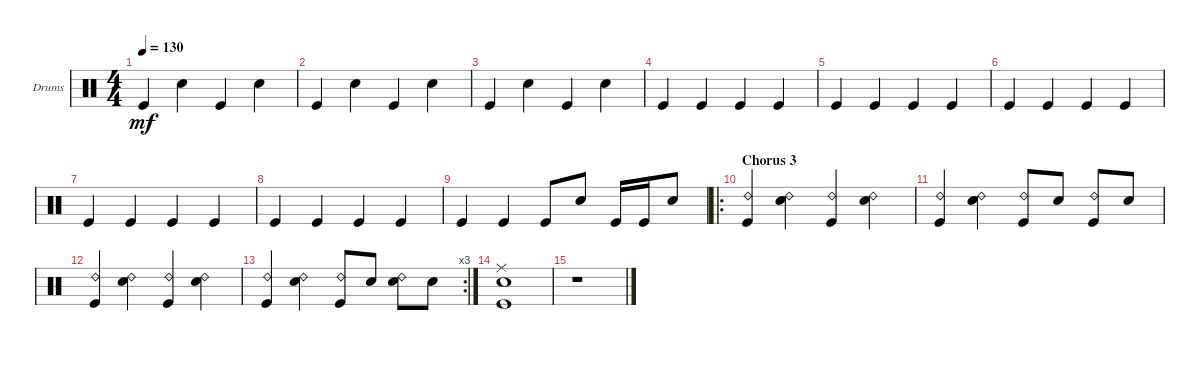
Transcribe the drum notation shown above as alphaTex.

\defaultSystemsLayout 4
\bracketExtendMode groupsimilarinstruments
\firstSystemTrackNameOrientation horizontal
\otherSystemsTrackNameOrientation horizontal
\chordDiagramsInScore
\track ("Drumkit" "Drums") {instrument percussion}
\staff {score}
\articulation defaults
\ts (4 4)
\tempo 130
\clef neutral
\ks c "Kick (hit)".4{dy mf} "Snare (hit) 2".4 "Kick (hit)".4 "Snare (hit) 2".4
|
"Kick (hit)".4 "Snare (hit) 2".4 "Kick (hit)".4 "Snare (hit) 2".4 |
"Kick (hit)".4 "Snare (hit) 2".4 "Kick (hit)".4 "Snare (hit) 2".4 |
"Kick (hit)".4 "Kick (hit)".4 "Kick (hit)".4 "Kick (hit)".4 |
"Kick (hit)".4 "Kick (hit)".4 "Kick (hit)".4 "Kick (hit)".4 |
"Kick (hit)".4 "Kick (hit)".4 "Kick (hit)".4 "Kick (hit)".4 |
"Kick (hit)".4 "Kick (hit)".4 "Kick (hit)".4 "Kick (hit)".4 |
"Kick (hit)".4 "Kick (hit)".4 "Kick (hit)".4 "Kick (hit)".4 |
"Kick (hit)".4 "Kick (hit)".4 "Kick (hit)".8 "Snare (hit) 2".8 "Kick (hit)".16 "Kick (hit)".16 "Snare (hit) 2".8 |
\ro
\section ("" "Chorus 3")
("Kick (hit)" "Ride (bell) 2").4 ("Snare (hit) 2" "Ride (bell) 2").4 ("Kick (hit)" "Ride (bell) 2").4 ("Snare (hit) 2" "Ride (bell) 2").4 |
("Kick (hit)" "Ride (bell) 2").4 ("Snare (hit) 2" "Ride (bell) 2").4 ("Kick (hit)" "Ride (bell) 2").8 "Snare (hit) 2".8 ("Kick (hit)" "Ride (bell) 2").8 "Snare (hit) 2".8 |
("Kick (hit)" "Ride (bell) 2").4 ("Snare (hit) 2" "Ride (bell) 2").4 ("Kick (hit)" "Ride (bell) 2").4 ("Snare (hit) 2" "Ride (bell) 2").4 |
\rc 3
("Kick (hit)" "Ride (bell) 2").4 ("Snare (hit) 2" "Ride (bell) 2").4 ("Kick (hit)" "Ride (bell) 2").8 "Snare (hit) 2".8 ("Snare (hit) 2" "Ride (bell) 2").8 "Snare (hit) 2".8 |
("Ride (middle)" "Kick (hit)" "Snare (hit) 2").1 |
r.1
